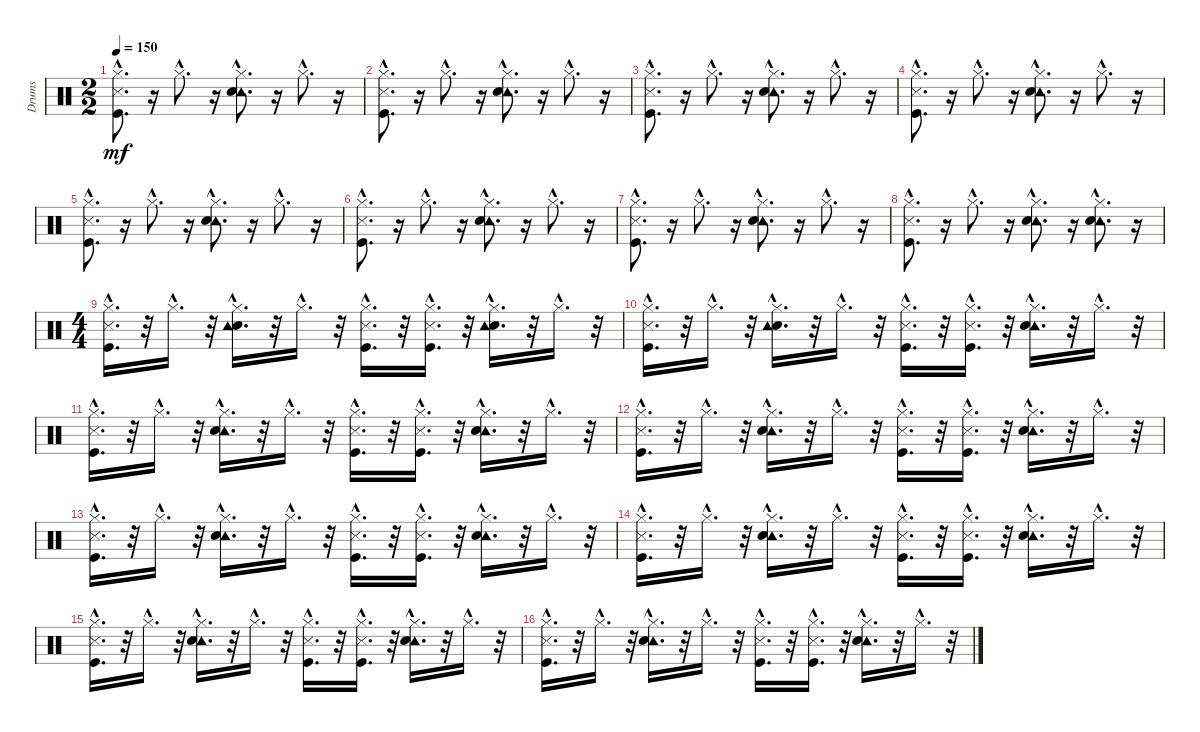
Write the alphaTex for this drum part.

\track ("Drums" "Drums") {instrument percussion}
\staff {score}
\articulation defaults
\ts (2 2)
\tempo 150
\clef neutral
\ks c
("Hi-Hat (closed)"{hac} "Kick (hit)"{hac} "Metronome (hit)"{hac}).8{d dy mf} r.16 "Hi-Hat (closed)"{hac}.8{d} r.16 ("Hi-Hat (closed)"{hac} "Tambourine (hit)"{hac} "Electric Snare (hit)"{hac}).8{d} r.16 "Hi-Hat (closed)"{hac}.8{d} r.16 |
("Hi-Hat (closed)"{hac} "Kick (hit)"{hac} "Metronome (hit)"{hac}).8{d} r.16 "Hi-Hat (closed)"{hac}.8{d} r.16 ("Hi-Hat (closed)"{hac} "Tambourine (hit)"{hac} "Electric Snare (hit)"{hac}).8{d} r.16 "Hi-Hat (closed)"{hac}.8{d} r.16 |
("Hi-Hat (closed)"{hac} "Kick (hit)"{hac} "Metronome (hit)"{hac}).8{d} r.16 "Hi-Hat (closed)"{hac}.8{d} r.16 ("Hi-Hat (closed)"{hac} "Tambourine (hit)"{hac} "Electric Snare (hit)"{hac}).8{d} r.16 "Hi-Hat (closed)"{hac}.8{d} r.16 |
("Hi-Hat (closed)"{hac} "Kick (hit)"{hac} "Metronome (hit)"{hac}).8{d} r.16 "Hi-Hat (closed)"{hac}.8{d} r.16 ("Hi-Hat (closed)"{hac} "Tambourine (hit)"{hac} "Electric Snare (hit)"{hac}).8{d} r.16 "Hi-Hat (closed)"{hac}.8{d} r.16 |
("Hi-Hat (closed)"{hac} "Kick (hit)"{hac} "Metronome (hit)"{hac}).8{d} r.16 "Hi-Hat (closed)"{hac}.8{d} r.16 ("Hi-Hat (closed)"{hac} "Tambourine (hit)"{hac} "Electric Snare (hit)"{hac}).8{d} r.16 "Hi-Hat (closed)"{hac}.8{d} r.16 |
("Hi-Hat (closed)"{hac} "Kick (hit)"{hac} "Metronome (hit)"{hac}).8{d} r.16 "Hi-Hat (closed)"{hac}.8{d} r.16 ("Hi-Hat (closed)"{hac} "Tambourine (hit)"{hac} "Electric Snare (hit)"{hac}).8{d} r.16 "Hi-Hat (closed)"{hac}.8{d} r.16 |
("Hi-Hat (closed)"{hac} "Kick (hit)"{hac} "Metronome (hit)"{hac}).8{d} r.16 "Hi-Hat (closed)"{hac}.8{d} r.16 ("Hi-Hat (closed)"{hac} "Tambourine (hit)"{hac} "Electric Snare (hit)"{hac}).8{d} r.16 "Hi-Hat (closed)"{hac}.8{d} r.16 |
("Hi-Hat (closed)"{hac} "Kick (hit)"{hac} "Metronome (hit)"{hac}).8{d} r.16 "Hi-Hat (closed)"{hac}.8{d} r.16 ("Hi-Hat (closed)"{hac} "Tambourine (hit)"{hac} "Electric Snare (hit)"{hac}).8{d} r.16 ("Tambourine (hit)"{hac} "Electric Snare (hit)"{hac} "Hi-Hat (closed)"{hac}).8{d} r.16 |
\ts (4 4)
("Hi-Hat (closed)"{hac} "Kick (hit)"{hac} "Metronome (hit)"{hac}).16{d} r.32 "Hi-Hat (closed)"{hac}.16{d} r.32 ("Hi-Hat (closed)"{hac} "Electric Snare (hit)"{hac} "Tambourine (hit)"{hac}).16{d} r.32 "Hi-Hat (closed)"{hac}.16{d} r.32 ("Hi-Hat (closed)"{hac} "Kick (hit)"{hac} "Metronome (hit)"{hac}).16{d} r.32 ("Kick (hit)"{hac} "Metronome (hit)"{hac} "Hi-Hat (closed)"{hac}).16{d} r.32 ("Hi-Hat (closed)"{hac} "Electric Snare (hit)"{hac} "Tambourine (hit)"{hac}).16{d} r.32 "Hi-Hat (closed)"{hac}.16{d} r.32 |
("Metronome (hit)"{hac} "Kick (hit)"{hac} "Hi-Hat (closed)"{hac}).16{d} r.32 "Hi-Hat (closed)"{hac}.16{d} r.32 ("Electric Snare (hit)"{hac} "Hi-Hat (closed)"{hac} "Tambourine (hit)"{hac}).16{d} r.32 "Hi-Hat (closed)"{hac}.16{d} r.32 ("Metronome (hit)"{hac} "Kick (hit)"{hac} "Hi-Hat (closed)"{hac}).16{d} r.32 ("Hi-Hat (closed)"{hac} "Metronome (hit)"{hac} "Kick (hit)"{hac}).16{d} r.32 ("Tambourine (hit)"{hac} "Electric Snare (hit)"{hac} "Hi-Hat (closed)"{hac}).16{d} r.32 "Hi-Hat (closed)"{hac}.16{d} r.32 |
("Metronome (hit)"{hac} "Kick (hit)"{hac} "Hi-Hat (closed)"{hac}).16{d} r.32 "Hi-Hat (closed)"{hac}.16{d} r.32 ("Tambourine (hit)"{hac} "Electric Snare (hit)"{hac} "Hi-Hat (closed)"{hac}).16{d} r.32 "Hi-Hat (closed)"{hac}.16{d} r.32 ("Metronome (hit)"{hac} "Kick (hit)"{hac} "Hi-Hat (closed)"{hac}).16{d} r.32 ("Hi-Hat (closed)"{hac} "Metronome (hit)"{hac} "Kick (hit)"{hac}).16{d} r.32 ("Tambourine (hit)"{hac} "Electric Snare (hit)"{hac} "Hi-Hat (closed)"{hac}).16{d} r.32 "Hi-Hat (closed)"{hac}.16{d} r.32 |
("Metronome (hit)"{hac} "Kick (hit)"{hac} "Hi-Hat (closed)"{hac}).16{d} r.32 "Hi-Hat (closed)"{hac}.16{d} r.32 ("Tambourine (hit)"{hac} "Electric Snare (hit)"{hac} "Hi-Hat (closed)"{hac}).16{d} r.32 "Hi-Hat (closed)"{hac}.16{d} r.32 ("Metronome (hit)"{hac} "Kick (hit)"{hac} "Hi-Hat (closed)"{hac}).16{d} r.32 ("Hi-Hat (closed)"{hac} "Metronome (hit)"{hac} "Kick (hit)"{hac}).16{d} r.32 ("Tambourine (hit)"{hac} "Electric Snare (hit)"{hac} "Hi-Hat (closed)"{hac}).16{d} r.32 "Hi-Hat (closed)"{hac}.16{d} r.32 |
("Metronome (hit)"{hac} "Kick (hit)"{hac} "Hi-Hat (closed)"{hac}).16{d} r.32 "Hi-Hat (closed)"{hac}.16{d} r.32 ("Tambourine (hit)"{hac} "Electric Snare (hit)"{hac} "Hi-Hat (closed)"{hac}).16{d} r.32 "Hi-Hat (closed)"{hac}.16{d} r.32 ("Metronome (hit)"{hac} "Kick (hit)"{hac} "Hi-Hat (closed)"{hac}).16{d} r.32 ("Hi-Hat (closed)"{hac} "Metronome (hit)"{hac} "Kick (hit)"{hac}).16{d} r.32 ("Tambourine (hit)"{hac} "Electric Snare (hit)"{hac} "Hi-Hat (closed)"{hac}).16{d} r.32 "Hi-Hat (closed)"{hac}.16{d} r.32 |
("Metronome (hit)"{hac} "Kick (hit)"{hac} "Hi-Hat (closed)"{hac}).16{d} r.32 "Hi-Hat (closed)"{hac}.16{d} r.32 ("Tambourine (hit)"{hac} "Electric Snare (hit)"{hac} "Hi-Hat (closed)"{hac}).16{d} r.32 "Hi-Hat (closed)"{hac}.16{d} r.32 ("Metronome (hit)"{hac} "Kick (hit)"{hac} "Hi-Hat (closed)"{hac}).16{d} r.32 ("Hi-Hat (closed)"{hac} "Metronome (hit)"{hac} "Kick (hit)"{hac}).16{d} r.32 ("Tambourine (hit)"{hac} "Electric Snare (hit)"{hac} "Hi-Hat (closed)"{hac}).16{d} r.32 "Hi-Hat (closed)"{hac}.16{d} r.32 |
("Metronome (hit)"{hac} "Kick (hit)"{hac} "Hi-Hat (closed)"{hac}).16{d} r.32 "Hi-Hat (closed)"{hac}.16{d} r.32 ("Tambourine (hit)"{hac} "Electric Snare (hit)"{hac} "Hi-Hat (closed)"{hac}).16{d} r.32 "Hi-Hat (closed)"{hac}.16{d} r.32 ("Metronome (hit)"{hac} "Kick (hit)"{hac} "Hi-Hat (closed)"{hac}).16{d} r.32 ("Hi-Hat (closed)"{hac} "Metronome (hit)"{hac} "Kick (hit)"{hac}).16{d} r.32 ("Tambourine (hit)"{hac} "Electric Snare (hit)"{hac} "Hi-Hat (closed)"{hac}).16{d} r.32 "Hi-Hat (closed)"{hac}.16{d} r.32 |
("Metronome (hit)"{hac} "Kick (hit)"{hac} "Hi-Hat (closed)"{hac}).16{d} r.32 "Hi-Hat (closed)"{hac}.16{d} r.32 ("Tambourine (hit)"{hac} "Electric Snare (hit)"{hac} "Hi-Hat (closed)"{hac}).16{d} r.32 "Hi-Hat (closed)"{hac}.16{d} r.32 ("Metronome (hit)"{hac} "Kick (hit)"{hac} "Hi-Hat (closed)"{hac}).16{d} r.32 ("Hi-Hat (closed)"{hac} "Metronome (hit)"{hac} "Kick (hit)"{hac}).16{d} r.32 ("Tambourine (hit)"{hac} "Electric Snare (hit)"{hac} "Hi-Hat (closed)"{hac}).16{d} r.32 "Hi-Hat (closed)"{hac}.16{d} r.32
